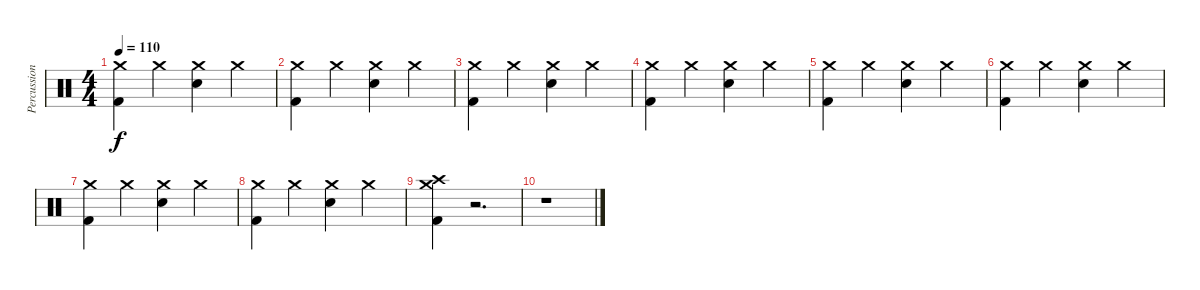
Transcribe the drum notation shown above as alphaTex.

\track ("Percussion" "Percussion") {instrument percussion}
\staff {score}
\articulation defaults
\ts (4 4)
\tempo 110
\clef neutral
\ks c
("Crash medium (hit)" "Kick (hit) 2").4{dy f} "Crash medium (hit)".4 ("Crash medium (hit)" "Electric Snare (hit)").4 "Crash medium (hit)".4 |
("Crash medium (hit)" "Kick (hit) 2").4 "Crash medium (hit)".4 ("Crash medium (hit)" "Electric Snare (hit)").4 "Crash medium (hit)".4 |
("Crash medium (hit)" "Kick (hit) 2").4 "Crash medium (hit)".4 ("Crash medium (hit)" "Electric Snare (hit)").4 "Crash medium (hit)".4 |
("Crash medium (hit)" "Kick (hit) 2").4 "Crash medium (hit)".4 ("Crash medium (hit)" "Electric Snare (hit)").4 "Crash medium (hit)".4 |
("Crash medium (hit)" "Kick (hit) 2").4 "Crash medium (hit)".4 ("Crash medium (hit)" "Electric Snare (hit)").4 "Crash medium (hit)".4 |
("Crash medium (hit)" "Kick (hit) 2").4 "Crash medium (hit)".4 ("Crash medium (hit)" "Electric Snare (hit)").4 "Crash medium (hit)".4 |
("Crash medium (hit)" "Kick (hit) 2").4 "Crash medium (hit)".4 ("Crash medium (hit)" "Electric Snare (hit)").4 "Crash medium (hit)".4 |
("Crash medium (hit)" "Kick (hit) 2").4 "Crash medium (hit)".4 ("Crash medium (hit)" "Electric Snare (hit)").4 "Crash medium (hit)".4 |
("Crash medium (hit)" "Crash high (hit)" "Kick (hit) 2").4 r.2{d} |
r.1
